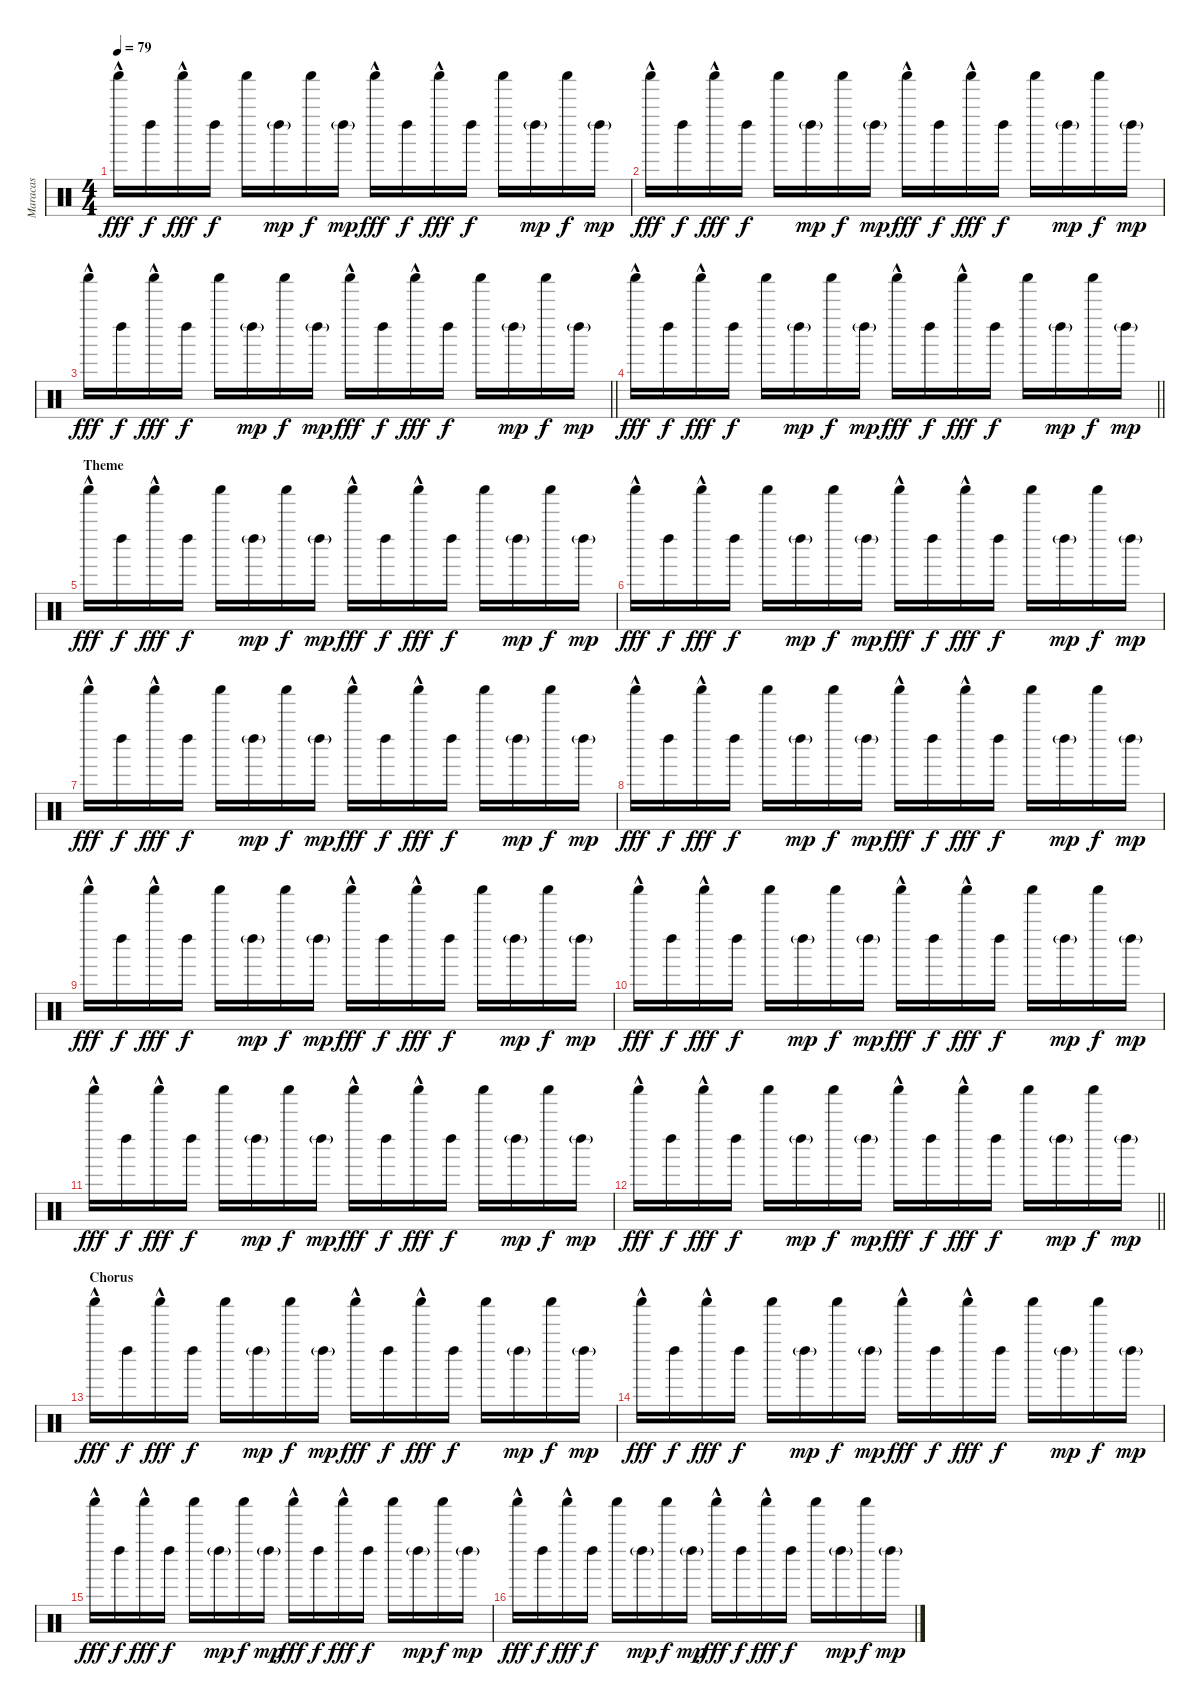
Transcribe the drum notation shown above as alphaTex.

\track ("Maracas" "Maracas") {instrument percussion}
\staff {score}
\articulation defaults
\ts (4 4)
\section ("" "")
\tempo 79
\clef neutral
\ks c "Shaker (hit)"{hac}.16{dy fff} "Left Maraca (hit)".16{dy f} "Shaker (hit)"{hac}.16{dy fff} "Left Maraca (hit)".16{dy f} "Shaker (hit)".16 "Left Maraca (hit)"{g}.16{dy mp} "Shaker (hit)".16{dy f} "Left Maraca (hit)"{g}.16{dy mp} "Shaker (hit)"{hac}.16{dy fff} "Left Maraca (hit)".16{dy f} "Shaker (hit)"{hac}.16{dy fff} "Left Maraca (hit)".16{dy f} "Shaker (hit)".16 "Left Maraca (hit)"{g}.16{dy mp} "Shaker (hit)".16{dy f} "Left Maraca (hit)"{g}.16{dy mp}
|
"Shaker (hit)"{hac}.16{dy fff} "Left Maraca (hit)".16{dy f} "Shaker (hit)"{hac}.16{dy fff} "Left Maraca (hit)".16{dy f} "Shaker (hit)".16 "Left Maraca (hit)"{g}.16{dy mp} "Shaker (hit)".16{dy f} "Left Maraca (hit)"{g}.16{dy mp} "Shaker (hit)"{hac}.16{dy fff} "Left Maraca (hit)".16{dy f} "Shaker (hit)"{hac}.16{dy fff} "Left Maraca (hit)".16{dy f} "Shaker (hit)".16 "Left Maraca (hit)"{g}.16{dy mp} "Shaker (hit)".16{dy f} "Left Maraca (hit)"{g}.16{dy mp} |
\barLineRight lightlight "Shaker (hit)"{hac}.16{dy fff} "Left Maraca (hit)".16{dy f} "Shaker (hit)"{hac}.16{dy fff} "Left Maraca (hit)".16{dy f} "Shaker (hit)".16 "Left Maraca (hit)"{g}.16{dy mp} "Shaker (hit)".16{dy f} "Left Maraca (hit)"{g}.16{dy mp} "Shaker (hit)"{hac}.16{dy fff} "Left Maraca (hit)".16{dy f} "Shaker (hit)"{hac}.16{dy fff} "Left Maraca (hit)".16{dy f} "Shaker (hit)".16 "Left Maraca (hit)"{g}.16{dy mp} "Shaker (hit)".16{dy f} "Left Maraca (hit)"{g}.16{dy mp}
|
\section ("" "")
\barLineRight lightlight "Shaker (hit)"{hac}.16{dy fff} "Left Maraca (hit)".16{dy f} "Shaker (hit)"{hac}.16{dy fff} "Left Maraca (hit)".16{dy f} "Shaker (hit)".16 "Left Maraca (hit)"{g}.16{dy mp} "Shaker (hit)".16{dy f} "Left Maraca (hit)"{g}.16{dy mp} "Shaker (hit)"{hac}.16{dy fff} "Left Maraca (hit)".16{dy f} "Shaker (hit)"{hac}.16{dy fff} "Left Maraca (hit)".16{dy f} "Shaker (hit)".16 "Left Maraca (hit)"{g}.16{dy mp} "Shaker (hit)".16{dy f} "Left Maraca (hit)"{g}.16{dy mp}
|
\section ("" "Theme")
"Shaker (hit)"{hac}.16{dy fff} "Left Maraca (hit)".16{dy f} "Shaker (hit)"{hac}.16{dy fff} "Left Maraca (hit)".16{dy f} "Shaker (hit)".16 "Left Maraca (hit)"{g}.16{dy mp} "Shaker (hit)".16{dy f} "Left Maraca (hit)"{g}.16{dy mp} "Shaker (hit)"{hac}.16{dy fff} "Left Maraca (hit)".16{dy f} "Shaker (hit)"{hac}.16{dy fff} "Left Maraca (hit)".16{dy f} "Shaker (hit)".16 "Left Maraca (hit)"{g}.16{dy mp} "Shaker (hit)".16{dy f} "Left Maraca (hit)"{g}.16{dy mp} |
"Shaker (hit)"{hac}.16{dy fff} "Left Maraca (hit)".16{dy f} "Shaker (hit)"{hac}.16{dy fff} "Left Maraca (hit)".16{dy f} "Shaker (hit)".16 "Left Maraca (hit)"{g}.16{dy mp} "Shaker (hit)".16{dy f} "Left Maraca (hit)"{g}.16{dy mp} "Shaker (hit)"{hac}.16{dy fff} "Left Maraca (hit)".16{dy f} "Shaker (hit)"{hac}.16{dy fff} "Left Maraca (hit)".16{dy f} "Shaker (hit)".16 "Left Maraca (hit)"{g}.16{dy mp} "Shaker (hit)".16{dy f} "Left Maraca (hit)"{g}.16{dy mp} |
"Shaker (hit)"{hac}.16{dy fff} "Left Maraca (hit)".16{dy f} "Shaker (hit)"{hac}.16{dy fff} "Left Maraca (hit)".16{dy f} "Shaker (hit)".16 "Left Maraca (hit)"{g}.16{dy mp} "Shaker (hit)".16{dy f} "Left Maraca (hit)"{g}.16{dy mp} "Shaker (hit)"{hac}.16{dy fff} "Left Maraca (hit)".16{dy f} "Shaker (hit)"{hac}.16{dy fff} "Left Maraca (hit)".16{dy f} "Shaker (hit)".16 "Left Maraca (hit)"{g}.16{dy mp} "Shaker (hit)".16{dy f} "Left Maraca (hit)"{g}.16{dy mp} |
"Shaker (hit)"{hac}.16{dy fff} "Left Maraca (hit)".16{dy f} "Shaker (hit)"{hac}.16{dy fff} "Left Maraca (hit)".16{dy f} "Shaker (hit)".16 "Left Maraca (hit)"{g}.16{dy mp} "Shaker (hit)".16{dy f} "Left Maraca (hit)"{g}.16{dy mp} "Shaker (hit)"{hac}.16{dy fff} "Left Maraca (hit)".16{dy f} "Shaker (hit)"{hac}.16{dy fff} "Left Maraca (hit)".16{dy f} "Shaker (hit)".16 "Left Maraca (hit)"{g}.16{dy mp} "Shaker (hit)".16{dy f} "Left Maraca (hit)"{g}.16{dy mp} |
"Shaker (hit)"{hac}.16{dy fff} "Left Maraca (hit)".16{dy f} "Shaker (hit)"{hac}.16{dy fff} "Left Maraca (hit)".16{dy f} "Shaker (hit)".16 "Left Maraca (hit)"{g}.16{dy mp} "Shaker (hit)".16{dy f} "Left Maraca (hit)"{g}.16{dy mp} "Shaker (hit)"{hac}.16{dy fff} "Left Maraca (hit)".16{dy f} "Shaker (hit)"{hac}.16{dy fff} "Left Maraca (hit)".16{dy f} "Shaker (hit)".16 "Left Maraca (hit)"{g}.16{dy mp} "Shaker (hit)".16{dy f} "Left Maraca (hit)"{g}.16{dy mp} |
"Shaker (hit)"{hac}.16{dy fff} "Left Maraca (hit)".16{dy f} "Shaker (hit)"{hac}.16{dy fff} "Left Maraca (hit)".16{dy f} "Shaker (hit)".16 "Left Maraca (hit)"{g}.16{dy mp} "Shaker (hit)".16{dy f} "Left Maraca (hit)"{g}.16{dy mp} "Shaker (hit)"{hac}.16{dy fff} "Left Maraca (hit)".16{dy f} "Shaker (hit)"{hac}.16{dy fff} "Left Maraca (hit)".16{dy f} "Shaker (hit)".16 "Left Maraca (hit)"{g}.16{dy mp} "Shaker (hit)".16{dy f} "Left Maraca (hit)"{g}.16{dy mp} |
"Shaker (hit)"{hac}.16{dy fff} "Left Maraca (hit)".16{dy f} "Shaker (hit)"{hac}.16{dy fff} "Left Maraca (hit)".16{dy f} "Shaker (hit)".16 "Left Maraca (hit)"{g}.16{dy mp} "Shaker (hit)".16{dy f} "Left Maraca (hit)"{g}.16{dy mp} "Shaker (hit)"{hac}.16{dy fff} "Left Maraca (hit)".16{dy f} "Shaker (hit)"{hac}.16{dy fff} "Left Maraca (hit)".16{dy f} "Shaker (hit)".16 "Left Maraca (hit)"{g}.16{dy mp} "Shaker (hit)".16{dy f} "Left Maraca (hit)"{g}.16{dy mp} |
\barLineRight lightlight "Shaker (hit)"{hac}.16{dy fff} "Left Maraca (hit)".16{dy f} "Shaker (hit)"{hac}.16{dy fff} "Left Maraca (hit)".16{dy f} "Shaker (hit)".16 "Left Maraca (hit)"{g}.16{dy mp} "Shaker (hit)".16{dy f} "Left Maraca (hit)"{g}.16{dy mp} "Shaker (hit)"{hac}.16{dy fff} "Left Maraca (hit)".16{dy f} "Shaker (hit)"{hac}.16{dy fff} "Left Maraca (hit)".16{dy f} "Shaker (hit)".16 "Left Maraca (hit)"{g}.16{dy mp} "Shaker (hit)".16{dy f} "Left Maraca (hit)"{g}.16{dy mp}
|
\section ("" "Chorus")
"Shaker (hit)"{hac}.16{dy fff} "Left Maraca (hit)".16{dy f} "Shaker (hit)"{hac}.16{dy fff} "Left Maraca (hit)".16{dy f} "Shaker (hit)".16 "Left Maraca (hit)"{g}.16{dy mp} "Shaker (hit)".16{dy f} "Left Maraca (hit)"{g}.16{dy mp} "Shaker (hit)"{hac}.16{dy fff} "Left Maraca (hit)".16{dy f} "Shaker (hit)"{hac}.16{dy fff} "Left Maraca (hit)".16{dy f} "Shaker (hit)".16 "Left Maraca (hit)"{g}.16{dy mp} "Shaker (hit)".16{dy f} "Left Maraca (hit)"{g}.16{dy mp} |
"Shaker (hit)"{hac}.16{dy fff} "Left Maraca (hit)".16{dy f} "Shaker (hit)"{hac}.16{dy fff} "Left Maraca (hit)".16{dy f} "Shaker (hit)".16 "Left Maraca (hit)"{g}.16{dy mp} "Shaker (hit)".16{dy f} "Left Maraca (hit)"{g}.16{dy mp} "Shaker (hit)"{hac}.16{dy fff} "Left Maraca (hit)".16{dy f} "Shaker (hit)"{hac}.16{dy fff} "Left Maraca (hit)".16{dy f} "Shaker (hit)".16 "Left Maraca (hit)"{g}.16{dy mp} "Shaker (hit)".16{dy f} "Left Maraca (hit)"{g}.16{dy mp} |
"Shaker (hit)"{hac}.16{dy fff} "Left Maraca (hit)".16{dy f} "Shaker (hit)"{hac}.16{dy fff} "Left Maraca (hit)".16{dy f} "Shaker (hit)".16 "Left Maraca (hit)"{g}.16{dy mp} "Shaker (hit)".16{dy f} "Left Maraca (hit)"{g}.16{dy mp} "Shaker (hit)"{hac}.16{dy fff} "Left Maraca (hit)".16{dy f} "Shaker (hit)"{hac}.16{dy fff} "Left Maraca (hit)".16{dy f} "Shaker (hit)".16 "Left Maraca (hit)"{g}.16{dy mp} "Shaker (hit)".16{dy f} "Left Maraca (hit)"{g}.16{dy mp} |
"Shaker (hit)"{hac}.16{dy fff} "Left Maraca (hit)".16{dy f} "Shaker (hit)"{hac}.16{dy fff} "Left Maraca (hit)".16{dy f} "Shaker (hit)".16 "Left Maraca (hit)"{g}.16{dy mp} "Shaker (hit)".16{dy f} "Left Maraca (hit)"{g}.16{dy mp} "Shaker (hit)"{hac}.16{dy fff} "Left Maraca (hit)".16{dy f} "Shaker (hit)"{hac}.16{dy fff} "Left Maraca (hit)".16{dy f} "Shaker (hit)".16 "Left Maraca (hit)"{g}.16{dy mp} "Shaker (hit)".16{dy f} "Left Maraca (hit)"{g}.16{dy mp}
